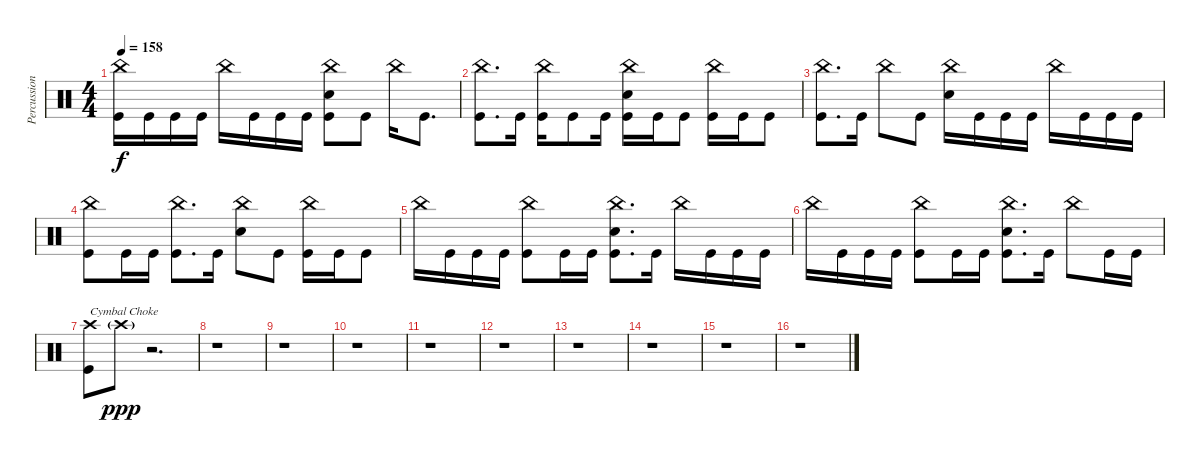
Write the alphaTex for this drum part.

\track ("Percussion" "Percussion") {instrument percussion}
\staff {score}
\articulation defaults
\ts (4 4)
\tempo 158
\clef neutral
\ks c
("China (hit)" "Kick (hit)").16{dy f} "Kick (hit)".16 "Kick (hit)".16 "Kick (hit)".16 "China (hit)".16 "Kick (hit)".16 "Kick (hit)".16 "Kick (hit)".16 ("China (hit)" "Electric Snare (hit)" "Kick (hit)").8 "Kick (hit)".8 "China (hit)".16 "Kick (hit)".8{d} |
("China (hit)" "Kick (hit)").8{d} "Kick (hit)".16 ("China (hit)" "Kick (hit)").16 "Kick (hit)".8 "Kick (hit)".16 ("China (hit)" "Electric Snare (hit)" "Kick (hit)").16 "Kick (hit)".16 "Kick (hit)".8 ("China (hit)" "Kick (hit)").16 "Kick (hit)".16 "Kick (hit)".8 |
("China (hit)" "Kick (hit)").8{d} "Kick (hit)".16 "China (hit)".8 "Kick (hit)".8 ("China (hit)" "Electric Snare (hit)").16 "Kick (hit)".16 "Kick (hit)".16 "Kick (hit)".16 "China (hit)".16 "Kick (hit)".16 "Kick (hit)".16 "Kick (hit)".16 |
("China (hit)" "Kick (hit)").8 "Kick (hit)".16 "Kick (hit)".16 ("China (hit)" "Kick (hit)").8{d} "Kick (hit)".16 ("China (hit)" "Electric Snare (hit)").8 "Kick (hit)".8 ("China (hit)" "Kick (hit)").16 "Kick (hit)".16 "Kick (hit)".8 |
"China (hit)".16 "Kick (hit)".16 "Kick (hit)".16 "Kick (hit)".16 ("China (hit)" "Kick (hit)").8 "Kick (hit)".16 "Kick (hit)".16 ("China (hit)" "Electric Snare (hit)" "Kick (hit)").8{d} "Kick (hit)".16 "China (hit)".16 "Kick (hit)".16 "Kick (hit)".16 "Kick (hit)".16 |
"China (hit)".16 "Kick (hit)".16 "Kick (hit)".16 "Kick (hit)".16 ("China (hit)" "Kick (hit)").8 "Kick (hit)".16 "Kick (hit)".16 ("China (hit)" "Electric Snare (hit)" "Kick (hit)").8{d} "Kick (hit)".16 "China (hit)".8 "Kick (hit)".16 "Kick (hit)".16 |
("Crash high (hit)" "Kick (hit)").8{txt "Cymbal Choke"} "Crash high (hit)"{g}.8{dy ppp volume 0} r.2{d} |
r.1 |
r.1 |
r.1 |
r.1 |
r.1 |
r.1 |
r.1 |
r.1 |
r.1
